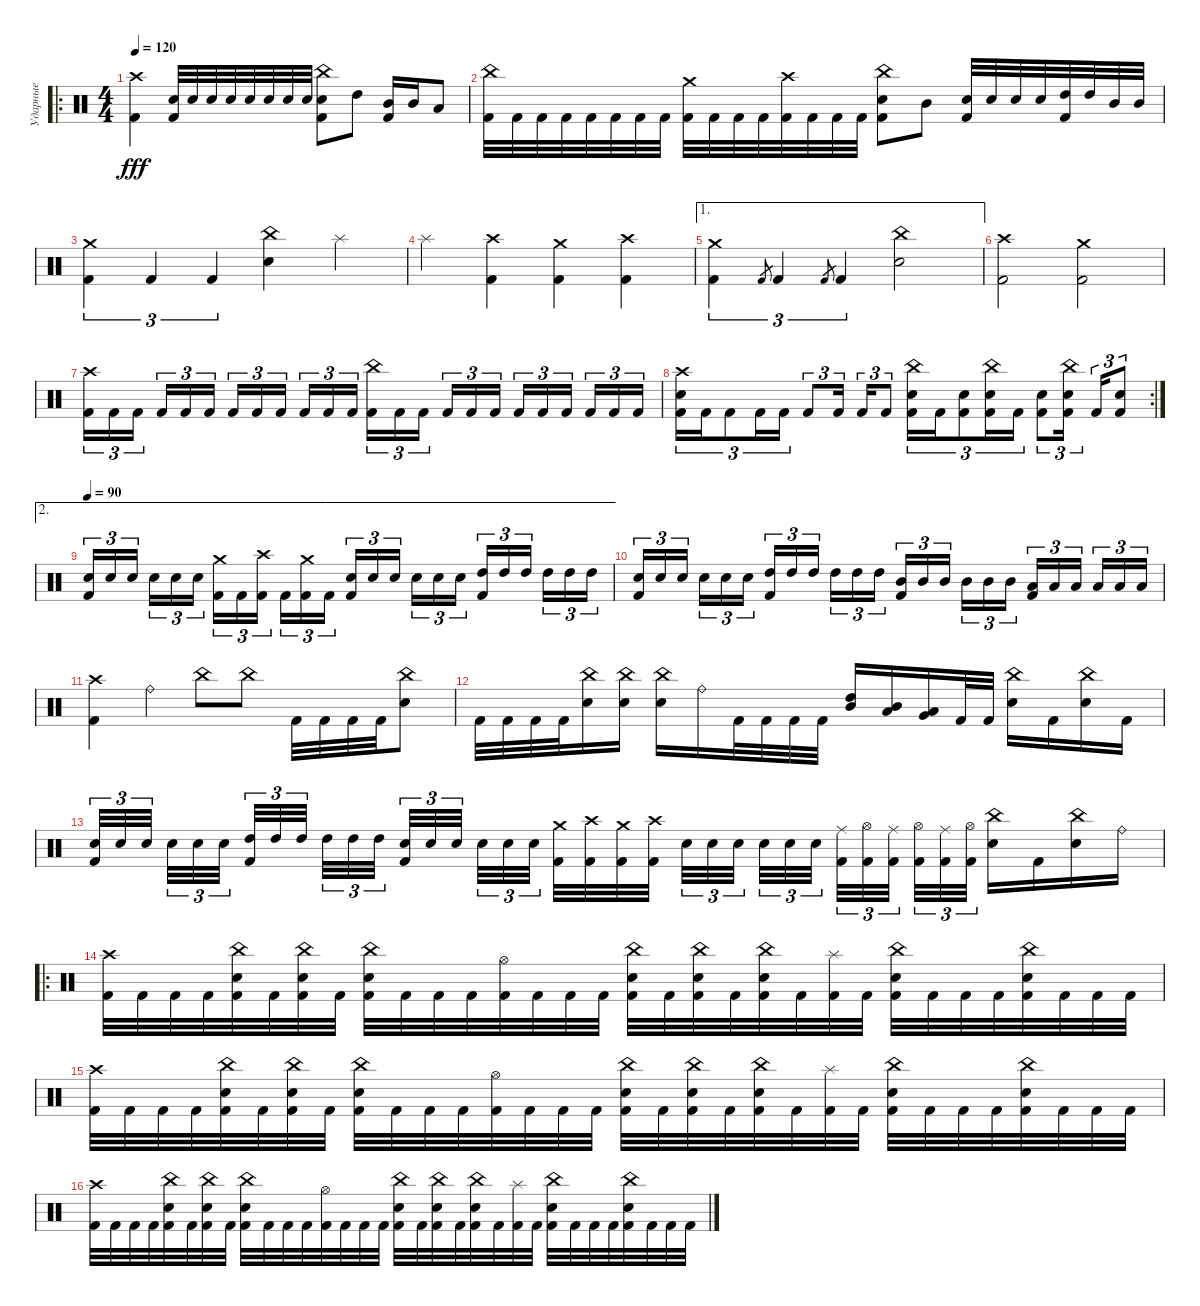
\track ("Ударные" "Ударные") {instrument percussion}
\staff {score}
\articulation defaults
\ro
\ts (4 4)
\tempo 120
\clef neutral
\ks c
("Crash high (hit)" "Kick (hit) 2").4{dy fff} ("Electric Snare (hit)" "Kick (hit) 2").32 "Electric Snare (hit)".32 "Electric Snare (hit)".32 "Electric Snare (hit)".32 "Electric Snare (hit)".32 "Electric Snare (hit)".32 "Electric Snare (hit)".32 "Electric Snare (hit)".32 ("China (hit)" "Electric Snare (hit)" "Kick (hit) 2").8 "High Tom (hit)".8 ("Mid Tom (hit)" "Kick (hit) 2").16 "Mid Tom (hit)".16 "Low Tom (hit)".8 |
("China (hit)" "Kick (hit) 2").32 "Kick (hit) 2".32 "Kick (hit) 2".32 "Kick (hit) 2".32 "Kick (hit) 2".32 "Kick (hit) 2".32 "Kick (hit) 2".32 "Kick (hit) 2".32 ("Crash medium (hit)" "Kick (hit) 2").32 "Kick (hit) 2".32 "Kick (hit) 2".32 "Kick (hit) 2".32 ("Crash high (hit)" "Kick (hit) 2").32 "Kick (hit) 2".32 "Kick (hit) 2".32 "Kick (hit) 2".32 ("China (hit)" "Electric Snare (hit)" "Kick (hit) 2").8 "Mid Tom (hit)".8 ("Electric Snare (hit)" "Kick (hit) 2").32 "Electric Snare (hit)".32 "Electric Snare (hit)".32 "Electric Snare (hit)".32 ("High Tom (hit)" "Kick (hit) 2").32 "High Tom (hit)".32 "Mid Tom (hit)".32 "Mid Tom (hit)".32 |
("Crash medium (hit)" "Kick (hit) 2").4{tu (3 2)} "Kick (hit) 2".4{tu (3 2)} "Kick (hit) 2".4{tu (3 2)} ("China (hit)" "Electric Snare (hit)").4 "Splash (hit)".4 |
"Splash (hit)".4 ("Crash high (hit)" "Kick (hit) 2").4 ("Crash medium (hit)" "Kick (hit) 2").4 ("Crash high (hit)" "Kick (hit) 2").4 |
\ae 1
("Crash medium (hit)" "Kick (hit) 2").4{tu (3 2)} "Kick (hit) 2".8{gr} "Kick (hit) 2".4{tu (3 2)} "Kick (hit) 2".8{gr} "Kick (hit) 2".4{tu (3 2)} ("China (hit)" "Electric Snare (hit)").2 |
("Crash high (hit)" "Kick (hit) 2").2 ("Crash medium (hit)" "Kick (hit) 2").2 |
("Crash high (hit)" "Kick (hit) 2").16{tu (3 2)} "Kick (hit) 2".16{tu (3 2)} "Kick (hit) 2".16{tu (3 2) beam splitsecondary} "Kick (hit) 2".16{tu (3 2)} "Kick (hit) 2".16{tu (3 2)} "Kick (hit) 2".16{tu (3 2)} "Kick (hit) 2".16{tu (3 2)} "Kick (hit) 2".16{tu (3 2)} "Kick (hit) 2".16{tu (3 2) beam splitsecondary} "Kick (hit) 2".16{tu (3 2)} "Kick (hit) 2".16{tu (3 2)} "Kick (hit) 2".16{tu (3 2)} ("China (hit)" "Kick (hit) 2").16{tu (3 2)} "Kick (hit) 2".16{tu (3 2)} "Kick (hit) 2".16{tu (3 2) beam splitsecondary} "Kick (hit) 2".16{tu (3 2)} "Kick (hit) 2".16{tu (3 2)} "Kick (hit) 2".16{tu (3 2)} "Kick (hit) 2".16{tu (3 2)} "Kick (hit) 2".16{tu (3 2)} "Kick (hit) 2".16{tu (3 2) beam splitsecondary} "Kick (hit) 2".16{tu (3 2)} "Kick (hit) 2".16{tu (3 2)} "Kick (hit) 2".16{tu (3 2)} |
\rc 2
("Crash high (hit)" "Electric Snare (hit)" "Kick (hit) 2").16{tu (3 2)} "Kick (hit) 2".16{tu (3 2)} "Kick (hit) 2".8{tu (3 2)} "Kick (hit) 2".16{tu (3 2)} "Kick (hit) 2".16{tu (3 2)} "Kick (hit) 2".8{tu (3 2)} "Kick (hit) 2".16{tu (3 2) beam splitsecondary} "Kick (hit) 2".16{tu (3 2)} "Kick (hit) 2".8{tu (3 2)} ("China (hit)" "Electric Snare (hit)" "Kick (hit) 2").16{tu (3 2)} "Kick (hit) 2".16{tu (3 2)} ("Electric Snare (hit)" "Kick (hit) 2").8{tu (3 2)} ("China (hit)" "Electric Snare (hit)" "Kick (hit) 2").16{tu (3 2)} "Kick (hit) 2".16{tu (3 2)} ("Electric Snare (hit)" "Kick (hit) 2").8{tu (3 2)} ("China (hit)" "Electric Snare (hit)" "Kick (hit) 2").16{tu (3 2) beam splitsecondary} "Kick (hit) 2".16{tu (3 2)} ("Electric Snare (hit)" "Kick (hit) 2").8{tu (3 2)} |
\ae 2
\tempo 90
("Electric Snare (hit)" "Kick (hit) 2").16{tu (3 2)} "Electric Snare (hit)".16{tu (3 2)} "Electric Snare (hit)".16{tu (3 2) beam splitsecondary} "Electric Snare (hit)".16{tu (3 2)} "Electric Snare (hit)".16{tu (3 2)} "Electric Snare (hit)".16{tu (3 2)} ("Crash medium (hit)" "Kick (hit) 2").16{tu (3 2)} "Kick (hit) 2".16{tu (3 2)} ("Crash high (hit)" "Kick (hit) 2").16{tu (3 2) beam splitsecondary} "Kick (hit) 2".16{tu (3 2)} ("Crash medium (hit)" "Kick (hit) 2").16{tu (3 2)} "Kick (hit) 2".16{tu (3 2)} ("Electric Snare (hit)" "Kick (hit) 2").16{tu (3 2)} "Electric Snare (hit)".16{tu (3 2)} "Electric Snare (hit)".16{tu (3 2) beam splitsecondary} "Electric Snare (hit)".16{tu (3 2)} "Electric Snare (hit)".16{tu (3 2)} "Electric Snare (hit)".16{tu (3 2)} ("High Tom (hit)" "Kick (hit) 2").16{tu (3 2)} "High Tom (hit)".16{tu (3 2)} "High Tom (hit)".16{tu (3 2) beam splitsecondary} "High Tom (hit)".16{tu (3 2)} "High Tom (hit)".16{tu (3 2)} "High Tom (hit)".16{tu (3 2)} |
("Electric Snare (hit)" "Kick (hit) 2").16{tu (3 2)} "Electric Snare (hit)".16{tu (3 2)} "Electric Snare (hit)".16{tu (3 2) beam splitsecondary} "Electric Snare (hit)".16{tu (3 2)} "Electric Snare (hit)".16{tu (3 2)} "Electric Snare (hit)".16{tu (3 2)} ("High Tom (hit)" "Kick (hit) 2").16{tu (3 2)} "High Tom (hit)".16{tu (3 2)} "High Tom (hit)".16{tu (3 2) beam splitsecondary} "High Tom (hit)".16{tu (3 2)} "High Tom (hit)".16{tu (3 2)} "High Tom (hit)".16{tu (3 2)} ("Mid Tom (hit)" "Kick (hit) 2").16{tu (3 2)} "Mid Tom (hit)".16{tu (3 2)} "Mid Tom (hit)".16{tu (3 2) beam splitsecondary} "Mid Tom (hit)".16{tu (3 2)} "Mid Tom (hit)".16{tu (3 2)} "Mid Tom (hit)".16{tu (3 2)} ("Low Tom (hit)" "Kick (hit) 2").16{tu (3 2)} "Low Tom (hit)".16{tu (3 2)} "Low Tom (hit)".16{tu (3 2) beam splitsecondary} "Low Tom (hit)".16{tu (3 2)} "Low Tom (hit)".16{tu (3 2)} "Low Tom (hit)".16{tu (3 2)} |
("Crash high (hit)" "Kick (hit) 2").4 "Ride (bell)".4 "China (hit)".8 "China (hit)".8 "Kick (hit) 2".32 "Kick (hit) 2".32 "Kick (hit) 2".32 "Kick (hit) 2".32 ("China (hit)" "Electric Snare (hit)").8 |
"Kick (hit) 2".32 "Kick (hit) 2".32 "Kick (hit) 2".32 "Kick (hit) 2".32 ("China (hit)" "Electric Snare (hit)").16 ("China (hit)" "Electric Snare (hit)").16 ("China (hit)" "Electric Snare (hit)").16 "Ride (bell)".16 "Kick (hit) 2".32 "Kick (hit) 2".32 "Kick (hit) 2".32 "Kick (hit) 2".32 ("Mid Tom (hit)" "High Tom (hit)").16 ("Low Tom (hit)" "Mid Tom (hit)").16 ("Low Tom (hit)" "Very Low Tom (hit)").16 "Kick (hit) 2".32 "Kick (hit) 2".32 ("China (hit)" "Electric Snare (hit)").16 "Kick (hit) 2".16 ("China (hit)" "Electric Snare (hit)").16 "Kick (hit) 2".16 |
("Electric Snare (hit)" "Kick (hit) 2").32{tu (3 2)} "Electric Snare (hit)".32{tu (3 2)} "Electric Snare (hit)".32{tu (3 2) beam splitsecondary} "Electric Snare (hit)".32{tu (3 2)} "Electric Snare (hit)".32{tu (3 2)} "Electric Snare (hit)".32{tu (3 2) beam splitsecondary} ("High Tom (hit)" "Kick (hit) 2").32{tu (3 2)} "High Tom (hit)".32{tu (3 2)} "High Tom (hit)".32{tu (3 2) beam splitsecondary} "High Tom (hit)".32{tu (3 2)} "High Tom (hit)".32{tu (3 2)} "High Tom (hit)".32{tu (3 2)} ("Electric Snare (hit)" "Kick (hit) 2").32{tu (3 2)} "Electric Snare (hit)".32{tu (3 2)} "Electric Snare (hit)".32{tu (3 2) beam splitsecondary} "Electric Snare (hit)".32{tu (3 2)} "Electric Snare (hit)".32{tu (3 2)} "Electric Snare (hit)".32{tu (3 2) beam splitsecondary} ("Crash medium (hit)" "Kick (hit) 2").32 ("Crash high (hit)" "Kick (hit) 2").32 ("Crash medium (hit)" "Kick (hit) 2").32 ("Crash high (hit)" "Kick (hit) 2").32 "Electric Snare (hit)".32{tu (3 2)} "Electric Snare (hit)".32{tu (3 2)} "Electric Snare (hit)".32{tu (3 2) beam splitsecondary} "Electric Snare (hit)".32{tu (3 2)} "Electric Snare (hit)".32{tu (3 2)} "Electric Snare (hit)".32{tu (3 2) beam splitsecondary} ("Ride (middle)" "Kick (hit) 2").32{tu (3 2)} ("Hi-Hat (open)" "Kick (hit) 2").32{tu (3 2)} ("Ride (middle)" "Kick (hit) 2").32{tu (3 2) beam splitsecondary} ("Hi-Hat (open)" "Kick (hit) 2").32{tu (3 2)} ("Ride (middle)" "Kick (hit) 2").32{tu (3 2)} ("Hi-Hat (open)" "Kick (hit) 2").32{tu (3 2)} ("China (hit)" "Electric Snare (hit)").16 "Kick (hit) 2".16 ("China (hit)" "Electric Snare (hit)").16 "Ride (bell)".16 |
\ro
("Crash high (hit)" "Kick (hit) 2").32 "Kick (hit) 2".32 "Kick (hit) 2".32 "Kick (hit) 2".32 ("China (hit)" "Electric Snare (hit)" "Kick (hit) 2").32 "Kick (hit) 2".32 ("China (hit)" "Electric Snare (hit)" "Kick (hit) 2").32 "Kick (hit) 2".32 ("China (hit)" "Electric Snare (hit)" "Kick (hit) 2").32 "Kick (hit) 2".32 "Kick (hit) 2".32 "Kick (hit) 2".32 ("Hi-Hat (open)" "Kick (hit) 2").32 "Kick (hit) 2".32 "Kick (hit) 2".32 "Kick (hit) 2".32 ("China (hit)" "Electric Snare (hit)" "Kick (hit) 2").32 "Kick (hit) 2".32 ("China (hit)" "Electric Snare (hit)" "Kick (hit) 2").32 "Kick (hit) 2".32 ("China (hit)" "Electric Snare (hit)" "Kick (hit) 2").32 "Kick (hit) 2".32 ("Splash (hit)" "Kick (hit) 2").32 "Kick (hit) 2".32 ("China (hit)" "Electric Snare (hit)" "Kick (hit) 2").32 "Kick (hit) 2".32 "Kick (hit) 2".32 "Kick (hit) 2".32 ("China (hit)" "Electric Snare (hit)" "Kick (hit) 2").32 "Kick (hit) 2".32 "Kick (hit) 2".32 "Kick (hit) 2".32 |
("Crash high (hit)" "Kick (hit) 2").32 "Kick (hit) 2".32 "Kick (hit) 2".32 "Kick (hit) 2".32 ("China (hit)" "Electric Snare (hit)" "Kick (hit) 2").32 "Kick (hit) 2".32 ("China (hit)" "Electric Snare (hit)" "Kick (hit) 2").32 "Kick (hit) 2".32 ("China (hit)" "Electric Snare (hit)" "Kick (hit) 2").32 "Kick (hit) 2".32 "Kick (hit) 2".32 "Kick (hit) 2".32 ("Hi-Hat (open)" "Kick (hit) 2").32 "Kick (hit) 2".32 "Kick (hit) 2".32 "Kick (hit) 2".32 ("China (hit)" "Electric Snare (hit)" "Kick (hit) 2").32 "Kick (hit) 2".32 ("China (hit)" "Electric Snare (hit)" "Kick (hit) 2").32 "Kick (hit) 2".32 ("China (hit)" "Electric Snare (hit)" "Kick (hit) 2").32 "Kick (hit) 2".32 ("Splash (hit)" "Kick (hit) 2").32 "Kick (hit) 2".32 ("China (hit)" "Electric Snare (hit)" "Kick (hit) 2").32 "Kick (hit) 2".32 "Kick (hit) 2".32 "Kick (hit) 2".32 ("China (hit)" "Electric Snare (hit)" "Kick (hit) 2").32 "Kick (hit) 2".32 "Kick (hit) 2".32 "Kick (hit) 2".32 |
("Crash high (hit)" "Kick (hit) 2").32 "Kick (hit) 2".32 "Kick (hit) 2".32 "Kick (hit) 2".32 ("China (hit)" "Electric Snare (hit)" "Kick (hit) 2").32 "Kick (hit) 2".32 ("China (hit)" "Electric Snare (hit)" "Kick (hit) 2").32 "Kick (hit) 2".32 ("China (hit)" "Electric Snare (hit)" "Kick (hit) 2").32 "Kick (hit) 2".32 "Kick (hit) 2".32 "Kick (hit) 2".32 ("Hi-Hat (open)" "Kick (hit) 2").32 "Kick (hit) 2".32 "Kick (hit) 2".32 "Kick (hit) 2".32 ("China (hit)" "Electric Snare (hit)" "Kick (hit) 2").32 "Kick (hit) 2".32 ("China (hit)" "Electric Snare (hit)" "Kick (hit) 2").32 "Kick (hit) 2".32 ("China (hit)" "Electric Snare (hit)" "Kick (hit) 2").32 "Kick (hit) 2".32 ("Splash (hit)" "Kick (hit) 2").32 "Kick (hit) 2".32 ("China (hit)" "Electric Snare (hit)" "Kick (hit) 2").32 "Kick (hit) 2".32 "Kick (hit) 2".32 "Kick (hit) 2".32 ("China (hit)" "Electric Snare (hit)" "Kick (hit) 2").32 "Kick (hit) 2".32 "Kick (hit) 2".32 "Kick (hit) 2".32
